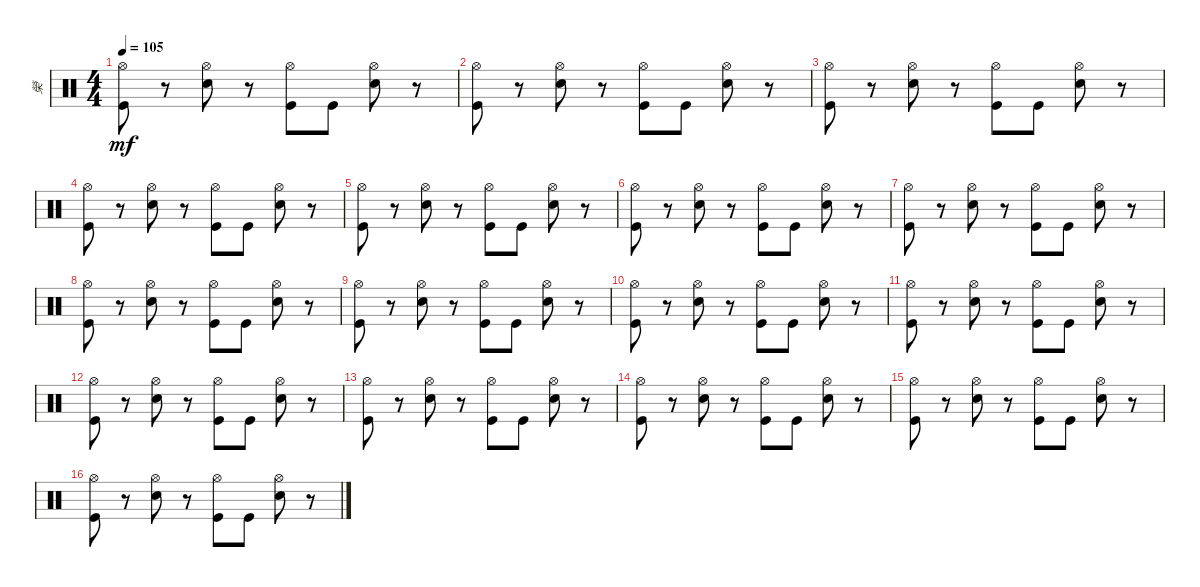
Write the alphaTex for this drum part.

\track ("榮" "榮") {instrument percussion}
\staff {score}
\articulation defaults
\ts (4 4)
\tempo 105
\clef neutral
\ks c
("Hi-Hat (open)" "Kick (hit)").8{dy mf} r.8 ("Hi-Hat (open)" "Snare (hit) 2").8 r.8 ("Hi-Hat (open)" "Kick (hit)").8 "Kick (hit)".8 ("Hi-Hat (open)" "Snare (hit) 2").8 r.8 |
("Hi-Hat (open)" "Kick (hit)").8 r.8 ("Hi-Hat (open)" "Snare (hit) 2").8 r.8 ("Hi-Hat (open)" "Kick (hit)").8 "Kick (hit)".8 ("Hi-Hat (open)" "Snare (hit) 2").8 r.8 |
("Hi-Hat (open)" "Kick (hit)").8 r.8 ("Hi-Hat (open)" "Snare (hit) 2").8 r.8 ("Hi-Hat (open)" "Kick (hit)").8 "Kick (hit)".8 ("Hi-Hat (open)" "Snare (hit) 2").8 r.8 |
("Hi-Hat (open)" "Kick (hit)").8 r.8 ("Hi-Hat (open)" "Snare (hit) 2").8 r.8 ("Hi-Hat (open)" "Kick (hit)").8 "Kick (hit)".8 ("Hi-Hat (open)" "Snare (hit) 2").8 r.8 |
("Hi-Hat (open)" "Kick (hit)").8 r.8 ("Hi-Hat (open)" "Snare (hit) 2").8 r.8 ("Hi-Hat (open)" "Kick (hit)").8 "Kick (hit)".8 ("Hi-Hat (open)" "Snare (hit) 2").8 r.8 |
("Hi-Hat (open)" "Kick (hit)").8 r.8 ("Hi-Hat (open)" "Snare (hit) 2").8 r.8 ("Hi-Hat (open)" "Kick (hit)").8 "Kick (hit)".8 ("Hi-Hat (open)" "Snare (hit) 2").8 r.8 |
("Hi-Hat (open)" "Kick (hit)").8 r.8 ("Hi-Hat (open)" "Snare (hit) 2").8 r.8 ("Hi-Hat (open)" "Kick (hit)").8 "Kick (hit)".8 ("Hi-Hat (open)" "Snare (hit) 2").8 r.8 |
("Hi-Hat (open)" "Kick (hit)").8 r.8 ("Hi-Hat (open)" "Snare (hit) 2").8 r.8 ("Hi-Hat (open)" "Kick (hit)").8 "Kick (hit)".8 ("Hi-Hat (open)" "Snare (hit) 2").8 r.8 |
("Hi-Hat (open)" "Kick (hit)").8 r.8 ("Hi-Hat (open)" "Snare (hit) 2").8 r.8 ("Hi-Hat (open)" "Kick (hit)").8 "Kick (hit)".8 ("Hi-Hat (open)" "Snare (hit) 2").8 r.8 |
("Hi-Hat (open)" "Kick (hit)").8 r.8 ("Hi-Hat (open)" "Snare (hit) 2").8 r.8 ("Hi-Hat (open)" "Kick (hit)").8 "Kick (hit)".8 ("Hi-Hat (open)" "Snare (hit) 2").8 r.8 |
("Hi-Hat (open)" "Kick (hit)").8 r.8 ("Hi-Hat (open)" "Snare (hit) 2").8 r.8 ("Hi-Hat (open)" "Kick (hit)").8 "Kick (hit)".8 ("Hi-Hat (open)" "Snare (hit) 2").8 r.8 |
("Hi-Hat (open)" "Kick (hit)").8 r.8 ("Hi-Hat (open)" "Snare (hit) 2").8 r.8 ("Hi-Hat (open)" "Kick (hit)").8 "Kick (hit)".8 ("Hi-Hat (open)" "Snare (hit) 2").8 r.8 |
("Hi-Hat (open)" "Kick (hit)").8 r.8 ("Hi-Hat (open)" "Snare (hit) 2").8 r.8 ("Hi-Hat (open)" "Kick (hit)").8 "Kick (hit)".8 ("Hi-Hat (open)" "Snare (hit) 2").8 r.8 |
("Hi-Hat (open)" "Kick (hit)").8 r.8 ("Hi-Hat (open)" "Snare (hit) 2").8 r.8 ("Hi-Hat (open)" "Kick (hit)").8 "Kick (hit)".8 ("Hi-Hat (open)" "Snare (hit) 2").8 r.8 |
("Hi-Hat (open)" "Kick (hit)").8 r.8 ("Hi-Hat (open)" "Snare (hit) 2").8 r.8 ("Hi-Hat (open)" "Kick (hit)").8 "Kick (hit)".8 ("Hi-Hat (open)" "Snare (hit) 2").8 r.8 |
("Hi-Hat (open)" "Kick (hit)").8 r.8 ("Hi-Hat (open)" "Snare (hit) 2").8 r.8 ("Hi-Hat (open)" "Kick (hit)").8 "Kick (hit)".8 ("Hi-Hat (open)" "Snare (hit) 2").8 r.8
